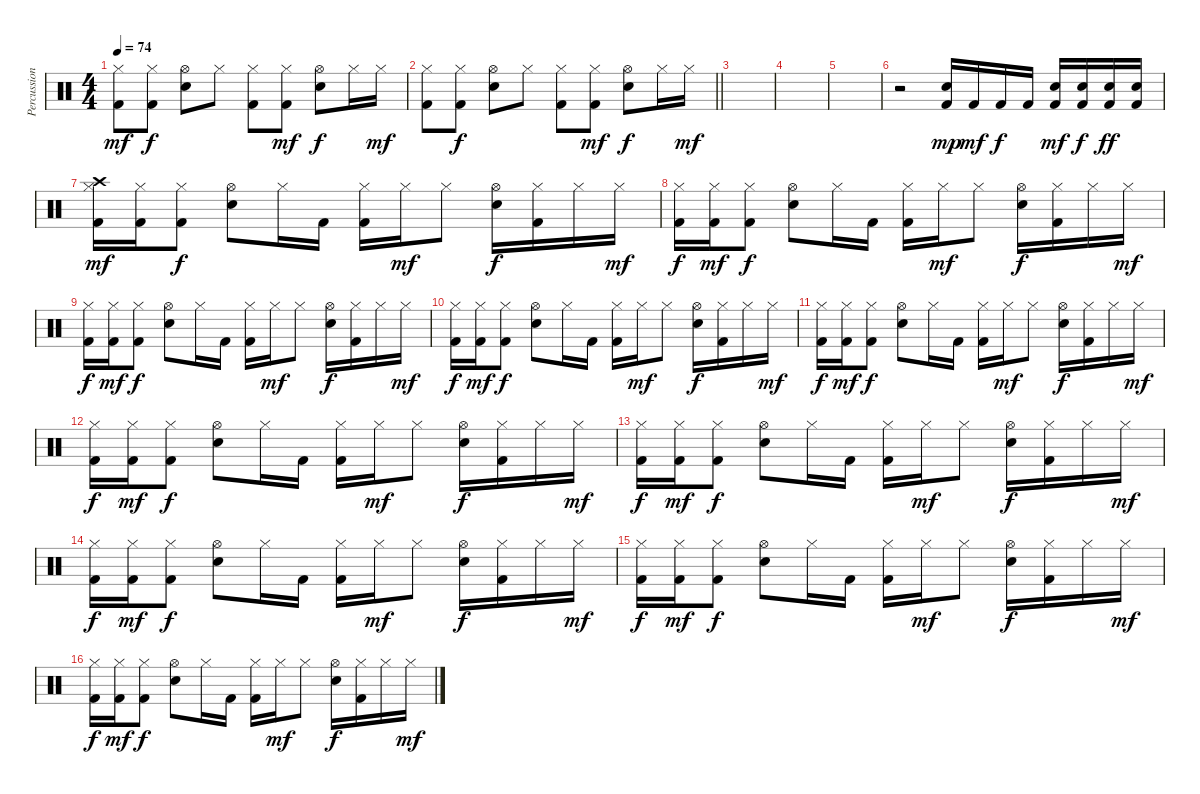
\track ("Percussion" "Percussion") {instrument percussion}
\staff {score}
\articulation defaults
\ts (4 4)
\tempo 74
\clef neutral
\ks c
("Hi-Hat (closed)" "Kick (hit) 2").8{dy mf} ("Hi-Hat (closed)" "Kick (hit) 2").8{dy f} ("Hi-Hat (open)" "Electric Snare (hit)").8 "Hi-Hat (closed)".8 ("Hi-Hat (closed)" "Kick (hit) 2").8 ("Hi-Hat (closed)" "Kick (hit) 2").8{dy mf} ("Hi-Hat (open)" "Electric Snare (hit)").8{dy f} "Hi-Hat (closed)".16 "Hi-Hat (closed)".16{dy mf} |
\barLineRight lightlight
("Hi-Hat (closed)" "Kick (hit) 2").8 ("Hi-Hat (closed)" "Kick (hit) 2").8{dy f} ("Hi-Hat (open)" "Electric Snare (hit)").8 "Hi-Hat (closed)".8 ("Hi-Hat (closed)" "Kick (hit) 2").8 ("Hi-Hat (closed)" "Kick (hit) 2").8{dy mf} ("Hi-Hat (open)" "Electric Snare (hit)").8{dy f} "Hi-Hat (closed)".16 "Hi-Hat (closed)".16{dy mf} |
|
|
|
r.2 ("Electric Snare (hit)" "Kick (hit) 2").16{dy mp} "Kick (hit) 2".16{dy mf} "Kick (hit) 2".16{dy f} "Kick (hit) 2".16 ("Electric Snare (hit)" "Kick (hit) 2").16{dy mf} ("Electric Snare (hit)" "Kick (hit) 2").16{dy f} ("Electric Snare (hit)" "Kick (hit) 2").16{dy ff} ("Electric Snare (hit)" "Kick (hit) 2").16 |
("Crash high (hit)" "Hi-Hat (closed)" "Kick (hit) 2").16{dy mf} ("Hi-Hat (closed)" "Kick (hit) 2").16 ("Hi-Hat (closed)" "Kick (hit) 2").8{dy f} ("Hi-Hat (open)" "Electric Snare (hit)").8 "Hi-Hat (closed)".16 "Kick (hit) 2".16 ("Hi-Hat (closed)" "Kick (hit) 2").16 "Hi-Hat (closed)".16{dy mf} "Hi-Hat (closed)".8 ("Hi-Hat (open)" "Electric Snare (hit)").16{dy f} ("Hi-Hat (closed)" "Kick (hit) 2").16 "Hi-Hat (closed)".16 "Hi-Hat (closed)".16{dy mf} |
("Hi-Hat (closed)" "Kick (hit) 2").16{dy f} ("Hi-Hat (closed)" "Kick (hit) 2").16{dy mf} ("Hi-Hat (closed)" "Kick (hit) 2").8{dy f} ("Hi-Hat (open)" "Electric Snare (hit)").8 "Hi-Hat (closed)".16 "Kick (hit) 2".16 ("Hi-Hat (closed)" "Kick (hit) 2").16 "Hi-Hat (closed)".16{dy mf} "Hi-Hat (closed)".8 ("Hi-Hat (open)" "Electric Snare (hit)").16{dy f} ("Hi-Hat (closed)" "Kick (hit) 2").16 "Hi-Hat (closed)".16 "Hi-Hat (closed)".16{dy mf} |
("Hi-Hat (closed)" "Kick (hit) 2").16{dy f} ("Hi-Hat (closed)" "Kick (hit) 2").16{dy mf} ("Hi-Hat (closed)" "Kick (hit) 2").8{dy f} ("Hi-Hat (open)" "Electric Snare (hit)").8 "Hi-Hat (closed)".16 "Kick (hit) 2".16 ("Hi-Hat (closed)" "Kick (hit) 2").16 "Hi-Hat (closed)".16{dy mf} "Hi-Hat (closed)".8 ("Hi-Hat (open)" "Electric Snare (hit)").16{dy f} ("Hi-Hat (closed)" "Kick (hit) 2").16 "Hi-Hat (closed)".16 "Hi-Hat (closed)".16{dy mf} |
("Hi-Hat (closed)" "Kick (hit) 2").16{dy f} ("Hi-Hat (closed)" "Kick (hit) 2").16{dy mf} ("Hi-Hat (closed)" "Kick (hit) 2").8{dy f} ("Hi-Hat (open)" "Electric Snare (hit)").8 "Hi-Hat (closed)".16 "Kick (hit) 2".16 ("Hi-Hat (closed)" "Kick (hit) 2").16 "Hi-Hat (closed)".16{dy mf} "Hi-Hat (closed)".8 ("Hi-Hat (open)" "Electric Snare (hit)").16{dy f} ("Hi-Hat (closed)" "Kick (hit) 2").16 "Hi-Hat (closed)".16 "Hi-Hat (closed)".16{dy mf} |
("Hi-Hat (closed)" "Kick (hit) 2").16{dy f} ("Hi-Hat (closed)" "Kick (hit) 2").16{dy mf} ("Hi-Hat (closed)" "Kick (hit) 2").8{dy f} ("Hi-Hat (open)" "Electric Snare (hit)").8 "Hi-Hat (closed)".16 "Kick (hit) 2".16 ("Hi-Hat (closed)" "Kick (hit) 2").16 "Hi-Hat (closed)".16{dy mf} "Hi-Hat (closed)".8 ("Hi-Hat (open)" "Electric Snare (hit)").16{dy f} ("Hi-Hat (closed)" "Kick (hit) 2").16 "Hi-Hat (closed)".16 "Hi-Hat (closed)".16{dy mf} |
("Hi-Hat (closed)" "Kick (hit) 2").16{dy f} ("Hi-Hat (closed)" "Kick (hit) 2").16{dy mf} ("Hi-Hat (closed)" "Kick (hit) 2").8{dy f} ("Hi-Hat (open)" "Electric Snare (hit)").8 "Hi-Hat (closed)".16 "Kick (hit) 2".16 ("Hi-Hat (closed)" "Kick (hit) 2").16 "Hi-Hat (closed)".16{dy mf} "Hi-Hat (closed)".8 ("Hi-Hat (open)" "Electric Snare (hit)").16{dy f} ("Hi-Hat (closed)" "Kick (hit) 2").16 "Hi-Hat (closed)".16 "Hi-Hat (closed)".16{dy mf} |
("Hi-Hat (closed)" "Kick (hit) 2").16{dy f} ("Hi-Hat (closed)" "Kick (hit) 2").16{dy mf} ("Hi-Hat (closed)" "Kick (hit) 2").8{dy f} ("Hi-Hat (open)" "Electric Snare (hit)").8 "Hi-Hat (closed)".16 "Kick (hit) 2".16 ("Hi-Hat (closed)" "Kick (hit) 2").16 "Hi-Hat (closed)".16{dy mf} "Hi-Hat (closed)".8 ("Hi-Hat (open)" "Electric Snare (hit)").16{dy f} ("Hi-Hat (closed)" "Kick (hit) 2").16 "Hi-Hat (closed)".16 "Hi-Hat (closed)".16{dy mf} |
("Hi-Hat (closed)" "Kick (hit) 2").16{dy f} ("Hi-Hat (closed)" "Kick (hit) 2").16{dy mf} ("Hi-Hat (closed)" "Kick (hit) 2").8{dy f} ("Hi-Hat (open)" "Electric Snare (hit)").8 "Hi-Hat (closed)".16 "Kick (hit) 2".16 ("Hi-Hat (closed)" "Kick (hit) 2").16 "Hi-Hat (closed)".16{dy mf} "Hi-Hat (closed)".8 ("Hi-Hat (open)" "Electric Snare (hit)").16{dy f} ("Hi-Hat (closed)" "Kick (hit) 2").16 "Hi-Hat (closed)".16 "Hi-Hat (closed)".16{dy mf} |
("Hi-Hat (closed)" "Kick (hit) 2").16{dy f} ("Hi-Hat (closed)" "Kick (hit) 2").16{dy mf} ("Hi-Hat (closed)" "Kick (hit) 2").8{dy f} ("Hi-Hat (open)" "Electric Snare (hit)").8 "Hi-Hat (closed)".16 "Kick (hit) 2".16 ("Hi-Hat (closed)" "Kick (hit) 2").16 "Hi-Hat (closed)".16{dy mf} "Hi-Hat (closed)".8 ("Hi-Hat (open)" "Electric Snare (hit)").16{dy f} ("Hi-Hat (closed)" "Kick (hit) 2").16 "Hi-Hat (closed)".16 "Hi-Hat (closed)".16{dy mf} |
("Hi-Hat (closed)" "Kick (hit) 2").16{dy f} ("Hi-Hat (closed)" "Kick (hit) 2").16{dy mf} ("Hi-Hat (closed)" "Kick (hit) 2").8{dy f} ("Hi-Hat (open)" "Electric Snare (hit)").8 "Hi-Hat (closed)".16 "Kick (hit) 2".16 ("Hi-Hat (closed)" "Kick (hit) 2").16 "Hi-Hat (closed)".16{dy mf} "Hi-Hat (closed)".8 ("Hi-Hat (open)" "Electric Snare (hit)").16{dy f} ("Hi-Hat (closed)" "Kick (hit) 2").16 "Hi-Hat (closed)".16 "Hi-Hat (closed)".16{dy mf}
